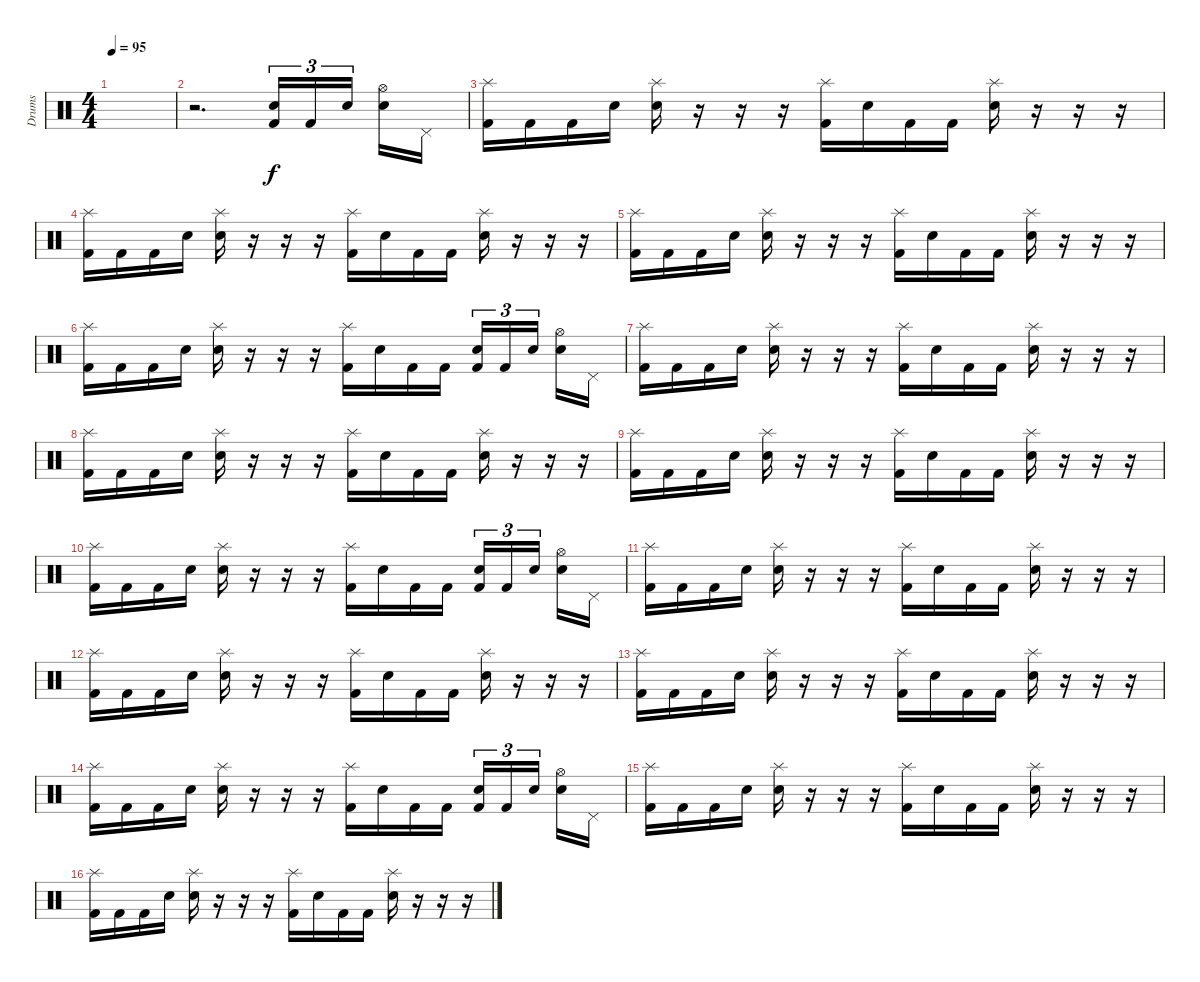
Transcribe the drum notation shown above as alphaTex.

\track ("Drums" "Drums") {instrument percussion}
\staff {score}
\articulation defaults
\ts (4 4)
\tempo 95
\clef neutral
\ks c
|
r.2{d} ("Electric Snare (hit)" "Kick (hit) 2").16{tu (3 2)} "Kick (hit) 2".16{tu (3 2)} "Electric Snare (hit)".16{tu (3 2)} ("Hi-Hat (open)" "Electric Snare (hit)").16 "Pedal Hi-Hat (hit)".16 |
("Splash (hit)" "Kick (hit) 2").16 "Kick (hit) 2".16 "Kick (hit) 2".16 "Electric Snare (hit)".16 ("Splash (hit)" "Electric Snare (hit)").16 r.16 r.16 r.16 ("Splash (hit)" "Kick (hit) 2").16 "Electric Snare (hit)".16 "Kick (hit) 2".16 "Kick (hit) 2".16 ("Splash (hit)" "Electric Snare (hit)").16 r.16 r.16 r.16 |
("Splash (hit)" "Kick (hit) 2").16 "Kick (hit) 2".16 "Kick (hit) 2".16 "Electric Snare (hit)".16 ("Splash (hit)" "Electric Snare (hit)").16 r.16 r.16 r.16 ("Splash (hit)" "Kick (hit) 2").16 "Electric Snare (hit)".16 "Kick (hit) 2".16 "Kick (hit) 2".16 ("Splash (hit)" "Electric Snare (hit)").16 r.16 r.16 r.16 |
("Splash (hit)" "Kick (hit) 2").16 "Kick (hit) 2".16 "Kick (hit) 2".16 "Electric Snare (hit)".16 ("Splash (hit)" "Electric Snare (hit)").16 r.16 r.16 r.16 ("Splash (hit)" "Kick (hit) 2").16 "Electric Snare (hit)".16 "Kick (hit) 2".16 "Kick (hit) 2".16 ("Splash (hit)" "Electric Snare (hit)").16 r.16 r.16 r.16 |
("Splash (hit)" "Kick (hit) 2").16 "Kick (hit) 2".16 "Kick (hit) 2".16 "Electric Snare (hit)".16 ("Splash (hit)" "Electric Snare (hit)").16 r.16 r.16 r.16 ("Splash (hit)" "Kick (hit) 2").16 "Electric Snare (hit)".16 "Kick (hit) 2".16 "Kick (hit) 2".16 ("Electric Snare (hit)" "Kick (hit) 2").16{tu (3 2)} "Kick (hit) 2".16{tu (3 2)} "Electric Snare (hit)".16{tu (3 2)} ("Hi-Hat (open)" "Electric Snare (hit)").16 "Pedal Hi-Hat (hit)".16 |
("Splash (hit)" "Kick (hit) 2").16 "Kick (hit) 2".16 "Kick (hit) 2".16 "Electric Snare (hit)".16 ("Splash (hit)" "Electric Snare (hit)").16 r.16 r.16 r.16 ("Splash (hit)" "Kick (hit) 2").16 "Electric Snare (hit)".16 "Kick (hit) 2".16 "Kick (hit) 2".16 ("Splash (hit)" "Electric Snare (hit)").16 r.16 r.16 r.16 |
("Splash (hit)" "Kick (hit) 2").16 "Kick (hit) 2".16 "Kick (hit) 2".16 "Electric Snare (hit)".16 ("Splash (hit)" "Electric Snare (hit)").16 r.16 r.16 r.16 ("Splash (hit)" "Kick (hit) 2").16 "Electric Snare (hit)".16 "Kick (hit) 2".16 "Kick (hit) 2".16 ("Splash (hit)" "Electric Snare (hit)").16 r.16 r.16 r.16 |
("Splash (hit)" "Kick (hit) 2").16 "Kick (hit) 2".16 "Kick (hit) 2".16 "Electric Snare (hit)".16 ("Splash (hit)" "Electric Snare (hit)").16 r.16 r.16 r.16 ("Splash (hit)" "Kick (hit) 2").16 "Electric Snare (hit)".16 "Kick (hit) 2".16 "Kick (hit) 2".16 ("Splash (hit)" "Electric Snare (hit)").16 r.16 r.16 r.16 |
("Splash (hit)" "Kick (hit) 2").16 "Kick (hit) 2".16 "Kick (hit) 2".16 "Electric Snare (hit)".16 ("Splash (hit)" "Electric Snare (hit)").16 r.16 r.16 r.16 ("Splash (hit)" "Kick (hit) 2").16 "Electric Snare (hit)".16 "Kick (hit) 2".16 "Kick (hit) 2".16 ("Electric Snare (hit)" "Kick (hit) 2").16{tu (3 2)} "Kick (hit) 2".16{tu (3 2)} "Electric Snare (hit)".16{tu (3 2)} ("Hi-Hat (open)" "Electric Snare (hit)").16 "Pedal Hi-Hat (hit)".16 |
("Splash (hit)" "Kick (hit) 2").16 "Kick (hit) 2".16 "Kick (hit) 2".16 "Electric Snare (hit)".16 ("Splash (hit)" "Electric Snare (hit)").16 r.16 r.16 r.16 ("Splash (hit)" "Kick (hit) 2").16 "Electric Snare (hit)".16 "Kick (hit) 2".16 "Kick (hit) 2".16 ("Splash (hit)" "Electric Snare (hit)").16 r.16 r.16 r.16 |
("Splash (hit)" "Kick (hit) 2").16 "Kick (hit) 2".16 "Kick (hit) 2".16 "Electric Snare (hit)".16 ("Splash (hit)" "Electric Snare (hit)").16 r.16 r.16 r.16 ("Splash (hit)" "Kick (hit) 2").16 "Electric Snare (hit)".16 "Kick (hit) 2".16 "Kick (hit) 2".16 ("Splash (hit)" "Electric Snare (hit)").16 r.16 r.16 r.16 |
("Splash (hit)" "Kick (hit) 2").16 "Kick (hit) 2".16 "Kick (hit) 2".16 "Electric Snare (hit)".16 ("Splash (hit)" "Electric Snare (hit)").16 r.16 r.16 r.16 ("Splash (hit)" "Kick (hit) 2").16 "Electric Snare (hit)".16 "Kick (hit) 2".16 "Kick (hit) 2".16 ("Splash (hit)" "Electric Snare (hit)").16 r.16 r.16 r.16 |
("Splash (hit)" "Kick (hit) 2").16 "Kick (hit) 2".16 "Kick (hit) 2".16 "Electric Snare (hit)".16 ("Splash (hit)" "Electric Snare (hit)").16 r.16 r.16 r.16 ("Splash (hit)" "Kick (hit) 2").16 "Electric Snare (hit)".16 "Kick (hit) 2".16 "Kick (hit) 2".16 ("Electric Snare (hit)" "Kick (hit) 2").16{tu (3 2)} "Kick (hit) 2".16{tu (3 2)} "Electric Snare (hit)".16{tu (3 2)} ("Hi-Hat (open)" "Electric Snare (hit)").16 "Pedal Hi-Hat (hit)".16 |
("Splash (hit)" "Kick (hit) 2").16 "Kick (hit) 2".16 "Kick (hit) 2".16 "Electric Snare (hit)".16 ("Splash (hit)" "Electric Snare (hit)").16 r.16 r.16 r.16 ("Splash (hit)" "Kick (hit) 2").16 "Electric Snare (hit)".16 "Kick (hit) 2".16 "Kick (hit) 2".16 ("Splash (hit)" "Electric Snare (hit)").16 r.16 r.16 r.16 |
("Splash (hit)" "Kick (hit) 2").16 "Kick (hit) 2".16 "Kick (hit) 2".16 "Electric Snare (hit)".16 ("Splash (hit)" "Electric Snare (hit)").16 r.16 r.16 r.16 ("Splash (hit)" "Kick (hit) 2").16 "Electric Snare (hit)".16 "Kick (hit) 2".16 "Kick (hit) 2".16 ("Splash (hit)" "Electric Snare (hit)").16 r.16 r.16 r.16
